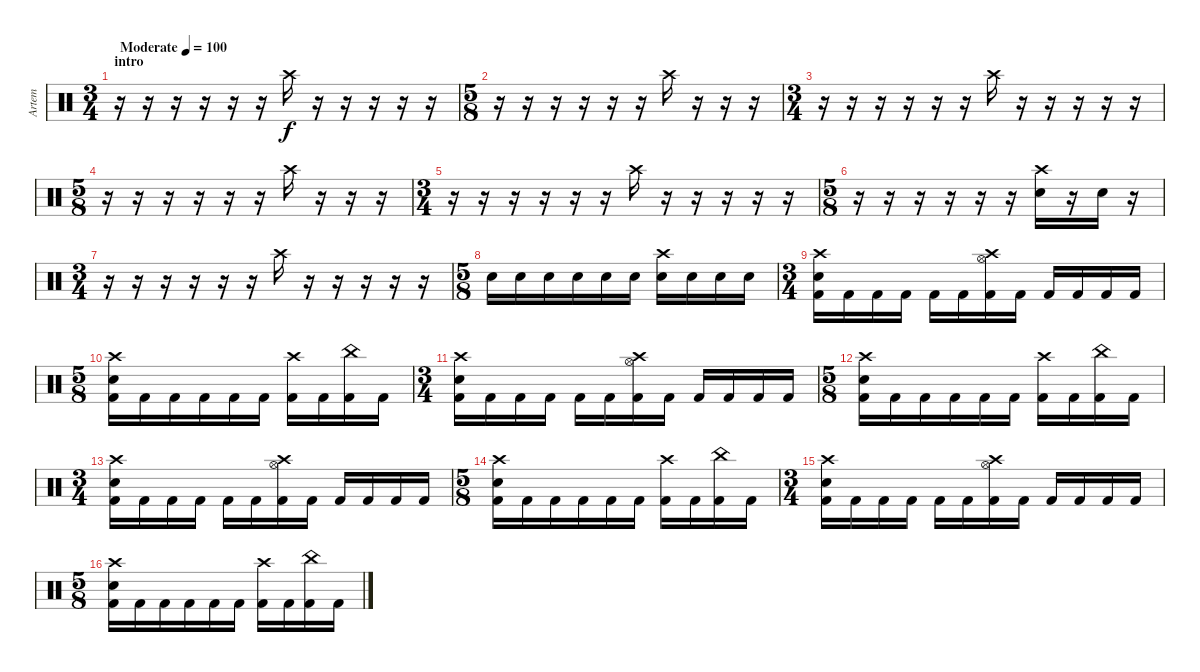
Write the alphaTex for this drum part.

\track ("Artem" "Artem") {instrument percussion}
\staff {score}
\articulation defaults
\ts (3 4)
\section ("" "intro")
\tempo (100 "Moderate")
\clef neutral
\ks c
r.16{dy f} r.16 r.16 r.16 r.16 r.16 "Crash high (hit)".16 r.16 r.16 r.16 r.16 r.16 |
\ts (5 8)
r.16 r.16 r.16 r.16 r.16 r.16 "Crash high (hit)".16 r.16 r.16 r.16 |
\ts (3 4)
r.16 r.16 r.16 r.16 r.16 r.16 "Crash high (hit)".16 r.16 r.16 r.16 r.16 r.16 |
\ts (5 8)
r.16 r.16 r.16 r.16 r.16 r.16 "Crash high (hit)".16 r.16 r.16 r.16 |
\ts (3 4)
r.16 r.16 r.16 r.16 r.16 r.16 "Crash high (hit)".16 r.16 r.16 r.16 r.16 r.16 |
\ts (5 8)
r.16 r.16 r.16 r.16 r.16 r.16 ("Snare (hit) 2" "Crash high (hit)").16 r.16 "Snare (hit) 2".16 r.16 |
\ts (3 4)
r.16 r.16 r.16 r.16 r.16 r.16 "Crash high (hit)".16 r.16 r.16 r.16 r.16 r.16 |
\ts (5 8)
"Snare (hit) 2".16 "Snare (hit) 2".16 "Snare (hit) 2".16 "Snare (hit) 2".16 "Snare (hit) 2".16 "Snare (hit) 2".16 ("Crash high (hit)" "Snare (hit) 2").16 "Snare (hit) 2".16 "Snare (hit) 2".16 "Snare (hit) 2".16 |
\ts (3 4)
("Kick (hit) 2" "Crash high (hit)" "Snare (hit) 2").16 "Kick (hit) 2".16 "Kick (hit) 2".16 "Kick (hit) 2".16 "Kick (hit) 2".16 "Kick (hit) 2".16 ("Crash high (hit)" "Hi-Hat (open)" "Kick (hit) 2").16 "Kick (hit) 2".16 "Kick (hit) 2".16 "Kick (hit) 2".16 "Kick (hit) 2".16 "Kick (hit) 2".16 |
\ts (5 8)
("Kick (hit) 2" "Crash high (hit)" "Snare (hit) 2").16 "Kick (hit) 2".16 "Kick (hit) 2".16 "Kick (hit) 2".16 "Kick (hit) 2".16 "Kick (hit) 2".16 ("Crash high (hit)" "Kick (hit) 2").16 "Kick (hit) 2".16 ("Kick (hit) 2" "China (hit)").16 "Kick (hit) 2".16 |
\ts (3 4)
("Kick (hit) 2" "Crash high (hit)" "Snare (hit) 2").16 "Kick (hit) 2".16 "Kick (hit) 2".16 "Kick (hit) 2".16 "Kick (hit) 2".16 "Kick (hit) 2".16 ("Crash high (hit)" "Hi-Hat (open)" "Kick (hit) 2").16 "Kick (hit) 2".16 "Kick (hit) 2".16 "Kick (hit) 2".16 "Kick (hit) 2".16 "Kick (hit) 2".16 |
\ts (5 8)
("Kick (hit) 2" "Crash high (hit)" "Snare (hit) 2").16 "Kick (hit) 2".16 "Kick (hit) 2".16 "Kick (hit) 2".16 "Kick (hit) 2".16 "Kick (hit) 2".16 ("Crash high (hit)" "Kick (hit) 2").16 "Kick (hit) 2".16 ("Kick (hit) 2" "China (hit)").16 "Kick (hit) 2".16 |
\ts (3 4)
("Kick (hit) 2" "Crash high (hit)" "Snare (hit) 2").16 "Kick (hit) 2".16 "Kick (hit) 2".16 "Kick (hit) 2".16 "Kick (hit) 2".16 "Kick (hit) 2".16 ("Crash high (hit)" "Hi-Hat (open)" "Kick (hit) 2").16 "Kick (hit) 2".16 "Kick (hit) 2".16 "Kick (hit) 2".16 "Kick (hit) 2".16 "Kick (hit) 2".16 |
\ts (5 8)
("Kick (hit) 2" "Crash high (hit)" "Snare (hit) 2").16 "Kick (hit) 2".16 "Kick (hit) 2".16 "Kick (hit) 2".16 "Kick (hit) 2".16 "Kick (hit) 2".16 ("Crash high (hit)" "Kick (hit) 2").16 "Kick (hit) 2".16 ("Kick (hit) 2" "China (hit)").16 "Kick (hit) 2".16 |
\ts (3 4)
("Kick (hit) 2" "Crash high (hit)" "Snare (hit) 2").16 "Kick (hit) 2".16 "Kick (hit) 2".16 "Kick (hit) 2".16 "Kick (hit) 2".16 "Kick (hit) 2".16 ("Crash high (hit)" "Hi-Hat (open)" "Kick (hit) 2").16 "Kick (hit) 2".16 "Kick (hit) 2".16 "Kick (hit) 2".16 "Kick (hit) 2".16 "Kick (hit) 2".16 |
\ts (5 8)
("Kick (hit) 2" "Crash high (hit)" "Snare (hit) 2").16 "Kick (hit) 2".16 "Kick (hit) 2".16 "Kick (hit) 2".16 "Kick (hit) 2".16 "Kick (hit) 2".16 ("Crash high (hit)" "Kick (hit) 2").16 "Kick (hit) 2".16 ("Kick (hit) 2" "China (hit)").16 "Kick (hit) 2".16
